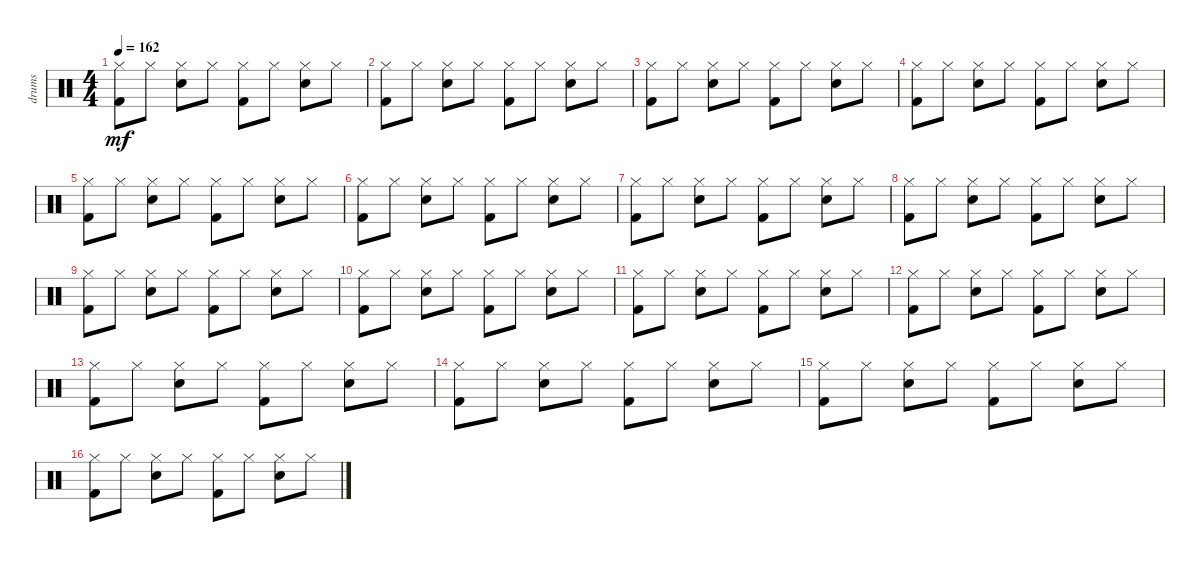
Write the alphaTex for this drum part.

\track ("drums" "drums") {instrument percussion}
\staff {score}
\articulation defaults
\ts (4 4)
\tempo 162
\clef neutral
\ks c
("Hi-Hat (closed)" "Kick (hit) 2").8{dy mf} "Hi-Hat (closed)".8 ("Hi-Hat (closed)" "Snare (hit) 2").8 "Hi-Hat (closed)".8 ("Hi-Hat (closed)" "Kick (hit) 2").8 "Hi-Hat (closed)".8 ("Hi-Hat (closed)" "Snare (hit) 2").8 "Hi-Hat (closed)".8 |
("Hi-Hat (closed)" "Kick (hit) 2").8 "Hi-Hat (closed)".8 ("Hi-Hat (closed)" "Snare (hit) 2").8 "Hi-Hat (closed)".8 ("Hi-Hat (closed)" "Kick (hit) 2").8 "Hi-Hat (closed)".8 ("Hi-Hat (closed)" "Snare (hit) 2").8 "Hi-Hat (closed)".8 |
("Hi-Hat (closed)" "Kick (hit) 2").8 "Hi-Hat (closed)".8 ("Hi-Hat (closed)" "Snare (hit) 2").8 "Hi-Hat (closed)".8 ("Hi-Hat (closed)" "Kick (hit) 2").8 "Hi-Hat (closed)".8 ("Hi-Hat (closed)" "Snare (hit) 2").8 "Hi-Hat (closed)".8 |
("Hi-Hat (closed)" "Kick (hit) 2").8 "Hi-Hat (closed)".8 ("Hi-Hat (closed)" "Snare (hit) 2").8 "Hi-Hat (closed)".8 ("Hi-Hat (closed)" "Kick (hit) 2").8 "Hi-Hat (closed)".8 ("Hi-Hat (closed)" "Snare (hit) 2").8 "Hi-Hat (closed)".8 |
("Hi-Hat (closed)" "Kick (hit) 2").8 "Hi-Hat (closed)".8 ("Hi-Hat (closed)" "Snare (hit) 2").8 "Hi-Hat (closed)".8 ("Hi-Hat (closed)" "Kick (hit) 2").8 "Hi-Hat (closed)".8 ("Hi-Hat (closed)" "Snare (hit) 2").8 "Hi-Hat (closed)".8 |
("Hi-Hat (closed)" "Kick (hit) 2").8 "Hi-Hat (closed)".8 ("Hi-Hat (closed)" "Snare (hit) 2").8 "Hi-Hat (closed)".8 ("Hi-Hat (closed)" "Kick (hit) 2").8 "Hi-Hat (closed)".8 ("Hi-Hat (closed)" "Snare (hit) 2").8 "Hi-Hat (closed)".8 |
("Hi-Hat (closed)" "Kick (hit) 2").8 "Hi-Hat (closed)".8 ("Hi-Hat (closed)" "Snare (hit) 2").8 "Hi-Hat (closed)".8 ("Hi-Hat (closed)" "Kick (hit) 2").8 "Hi-Hat (closed)".8 ("Hi-Hat (closed)" "Snare (hit) 2").8 "Hi-Hat (closed)".8 |
("Hi-Hat (closed)" "Kick (hit) 2").8 "Hi-Hat (closed)".8 ("Hi-Hat (closed)" "Snare (hit) 2").8 "Hi-Hat (closed)".8 ("Hi-Hat (closed)" "Kick (hit) 2").8 "Hi-Hat (closed)".8 ("Hi-Hat (closed)" "Snare (hit) 2").8 "Hi-Hat (closed)".8 |
("Hi-Hat (closed)" "Kick (hit) 2").8 "Hi-Hat (closed)".8 ("Hi-Hat (closed)" "Snare (hit) 2").8 "Hi-Hat (closed)".8 ("Hi-Hat (closed)" "Kick (hit) 2").8 "Hi-Hat (closed)".8 ("Hi-Hat (closed)" "Snare (hit) 2").8 "Hi-Hat (closed)".8 |
("Hi-Hat (closed)" "Kick (hit) 2").8 "Hi-Hat (closed)".8 ("Hi-Hat (closed)" "Snare (hit) 2").8 "Hi-Hat (closed)".8 ("Hi-Hat (closed)" "Kick (hit) 2").8 "Hi-Hat (closed)".8 ("Hi-Hat (closed)" "Snare (hit) 2").8 "Hi-Hat (closed)".8 |
("Hi-Hat (closed)" "Kick (hit) 2").8 "Hi-Hat (closed)".8 ("Hi-Hat (closed)" "Snare (hit) 2").8 "Hi-Hat (closed)".8 ("Hi-Hat (closed)" "Kick (hit) 2").8 "Hi-Hat (closed)".8 ("Hi-Hat (closed)" "Snare (hit) 2").8 "Hi-Hat (closed)".8 |
("Hi-Hat (closed)" "Kick (hit) 2").8 "Hi-Hat (closed)".8 ("Hi-Hat (closed)" "Snare (hit) 2").8 "Hi-Hat (closed)".8 ("Hi-Hat (closed)" "Kick (hit) 2").8 "Hi-Hat (closed)".8 ("Hi-Hat (closed)" "Snare (hit) 2").8 "Hi-Hat (closed)".8 |
("Hi-Hat (closed)" "Kick (hit) 2").8 "Hi-Hat (closed)".8 ("Hi-Hat (closed)" "Snare (hit) 2").8 "Hi-Hat (closed)".8 ("Hi-Hat (closed)" "Kick (hit) 2").8 "Hi-Hat (closed)".8 ("Hi-Hat (closed)" "Snare (hit) 2").8 "Hi-Hat (closed)".8 |
("Hi-Hat (closed)" "Kick (hit) 2").8 "Hi-Hat (closed)".8 ("Hi-Hat (closed)" "Snare (hit) 2").8 "Hi-Hat (closed)".8 ("Hi-Hat (closed)" "Kick (hit) 2").8 "Hi-Hat (closed)".8 ("Hi-Hat (closed)" "Snare (hit) 2").8 "Hi-Hat (closed)".8 |
("Hi-Hat (closed)" "Kick (hit) 2").8 "Hi-Hat (closed)".8 ("Hi-Hat (closed)" "Snare (hit) 2").8 "Hi-Hat (closed)".8 ("Hi-Hat (closed)" "Kick (hit) 2").8 "Hi-Hat (closed)".8 ("Hi-Hat (closed)" "Snare (hit) 2").8 "Hi-Hat (closed)".8 |
("Hi-Hat (closed)" "Kick (hit) 2").8 "Hi-Hat (closed)".8 ("Hi-Hat (closed)" "Snare (hit) 2").8 "Hi-Hat (closed)".8 ("Hi-Hat (closed)" "Kick (hit) 2").8 "Hi-Hat (closed)".8 ("Hi-Hat (closed)" "Snare (hit) 2").8 "Hi-Hat (closed)".8
